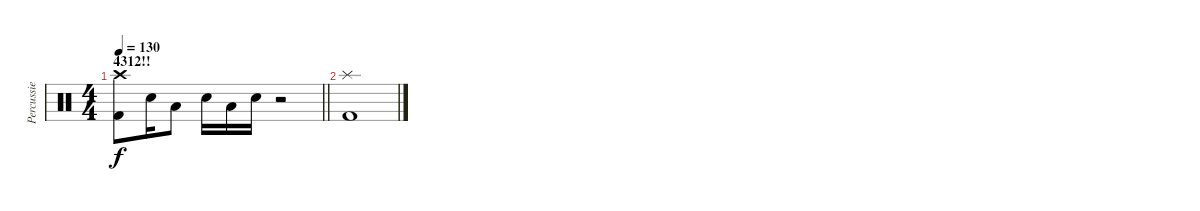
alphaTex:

\track ("Percussie" "Percussie") {instrument percussion}
\staff {score}
\articulation defaults
\ts (4 4)
\section ("" "4312!!")
\tempo 130
\clef neutral
\barLineRight lightlight
\ks c
("Crash high (hit)" "Kick (hit) 2").8{dy f} "Snare (hit) 2".16 "Low Floor Tom (hit)".8 "Snare (hit) 2".16 "Low Floor Tom (hit)".16 "Snare (hit) 2".16 r.2 |
("Splash (hit)" "Kick (hit) 2").1
